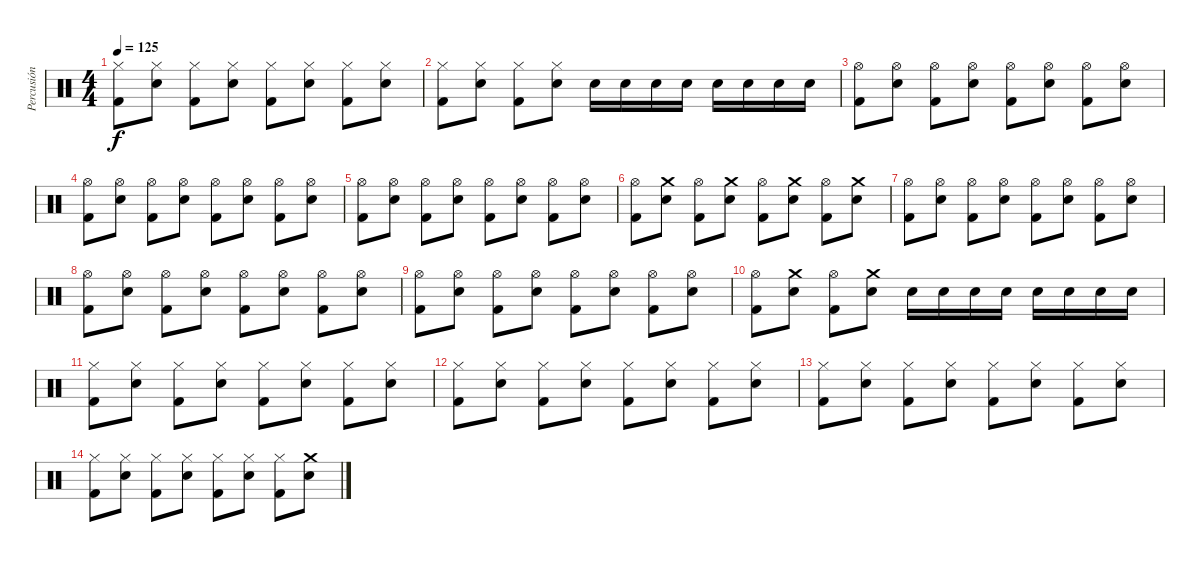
\track ("Percusión" "Percusión") {instrument percussion}
\staff {score}
\articulation defaults
\ts (4 4)
\tempo 125
\clef neutral
\ks c
("Hi-Hat (closed)" "Kick (hit) 2").8{dy f} ("Hi-Hat (closed)" "Snare (hit) 2").8 ("Hi-Hat (closed)" "Kick (hit) 2").8 ("Hi-Hat (closed)" "Snare (hit) 2").8 ("Hi-Hat (closed)" "Kick (hit) 2").8 ("Hi-Hat (closed)" "Snare (hit) 2").8 ("Hi-Hat (closed)" "Kick (hit) 2").8 ("Hi-Hat (closed)" "Snare (hit) 2").8 |
("Hi-Hat (closed)" "Kick (hit) 2").8 ("Hi-Hat (closed)" "Snare (hit) 2").8 ("Hi-Hat (closed)" "Kick (hit) 2").8 ("Hi-Hat (closed)" "Snare (hit) 2").8 "Snare (hit) 2".16 "Snare (hit) 2".16 "Snare (hit) 2".16 "Snare (hit) 2".16 "Snare (hit) 2".16 "Snare (hit) 2".16 "Snare (hit) 2".16 "Snare (hit) 2".16 |
("Hi-Hat (open)" "Kick (hit) 2").8 ("Hi-Hat (open)" "Snare (hit) 2").8 ("Hi-Hat (open)" "Kick (hit) 2").8 ("Hi-Hat (open)" "Snare (hit) 2").8 ("Hi-Hat (open)" "Kick (hit) 2").8 ("Hi-Hat (open)" "Snare (hit) 2").8 ("Hi-Hat (open)" "Kick (hit) 2").8 ("Hi-Hat (open)" "Snare (hit) 2").8 |
("Hi-Hat (open)" "Kick (hit) 2").8 ("Hi-Hat (open)" "Snare (hit) 2").8 ("Hi-Hat (open)" "Kick (hit) 2").8 ("Hi-Hat (open)" "Snare (hit) 2").8 ("Hi-Hat (open)" "Kick (hit) 2").8 ("Hi-Hat (open)" "Snare (hit) 2").8 ("Hi-Hat (open)" "Kick (hit) 2").8 ("Hi-Hat (open)" "Snare (hit) 2").8 |
("Hi-Hat (open)" "Kick (hit) 2").8 ("Hi-Hat (open)" "Snare (hit) 2").8 ("Hi-Hat (open)" "Kick (hit) 2").8 ("Hi-Hat (open)" "Snare (hit) 2").8 ("Hi-Hat (open)" "Kick (hit) 2").8 ("Hi-Hat (open)" "Snare (hit) 2").8 ("Hi-Hat (open)" "Kick (hit) 2").8 ("Hi-Hat (open)" "Snare (hit) 2").8 |
("Hi-Hat (open)" "Kick (hit) 2").8 ("Crash medium (hit)" "Snare (hit) 2").8 ("Hi-Hat (open)" "Kick (hit) 2").8 ("Crash medium (hit)" "Snare (hit) 2").8 ("Hi-Hat (open)" "Kick (hit) 2").8 ("Crash medium (hit)" "Snare (hit) 2").8 ("Hi-Hat (open)" "Kick (hit) 2").8 ("Crash medium (hit)" "Snare (hit) 2").8 |
("Hi-Hat (open)" "Kick (hit) 2").8 ("Hi-Hat (open)" "Snare (hit) 2").8 ("Hi-Hat (open)" "Kick (hit) 2").8 ("Hi-Hat (open)" "Snare (hit) 2").8 ("Hi-Hat (open)" "Kick (hit) 2").8 ("Hi-Hat (open)" "Snare (hit) 2").8 ("Hi-Hat (open)" "Kick (hit) 2").8 ("Hi-Hat (open)" "Snare (hit) 2").8 |
("Hi-Hat (open)" "Kick (hit) 2").8 ("Hi-Hat (open)" "Snare (hit) 2").8 ("Hi-Hat (open)" "Kick (hit) 2").8 ("Hi-Hat (open)" "Snare (hit) 2").8 ("Hi-Hat (open)" "Kick (hit) 2").8 ("Hi-Hat (open)" "Snare (hit) 2").8 ("Hi-Hat (open)" "Kick (hit) 2").8 ("Hi-Hat (open)" "Snare (hit) 2").8 |
("Hi-Hat (open)" "Kick (hit) 2").8 ("Hi-Hat (open)" "Snare (hit) 2").8 ("Hi-Hat (open)" "Kick (hit) 2").8 ("Hi-Hat (open)" "Snare (hit) 2").8 ("Hi-Hat (open)" "Kick (hit) 2").8 ("Hi-Hat (open)" "Snare (hit) 2").8 ("Hi-Hat (open)" "Kick (hit) 2").8 ("Hi-Hat (open)" "Snare (hit) 2").8 |
("Hi-Hat (open)" "Kick (hit) 2").8 ("Crash medium (hit)" "Snare (hit) 2").8 ("Hi-Hat (open)" "Kick (hit) 2").8 ("Crash medium (hit)" "Snare (hit) 2").8 "Snare (hit) 2".16 "Snare (hit) 2".16 "Snare (hit) 2".16 "Snare (hit) 2".16 "Snare (hit) 2".16 "Snare (hit) 2".16 "Snare (hit) 2".16 "Snare (hit) 2".16 |
("Hi-Hat (closed)" "Kick (hit) 2").8 ("Hi-Hat (closed)" "Snare (hit) 2").8 ("Hi-Hat (closed)" "Kick (hit) 2").8 ("Hi-Hat (closed)" "Snare (hit) 2").8 ("Hi-Hat (closed)" "Kick (hit) 2").8 ("Hi-Hat (closed)" "Snare (hit) 2").8 ("Hi-Hat (closed)" "Kick (hit) 2").8 ("Hi-Hat (closed)" "Snare (hit) 2").8 |
("Hi-Hat (closed)" "Kick (hit) 2").8 ("Hi-Hat (closed)" "Snare (hit) 2").8 ("Hi-Hat (closed)" "Kick (hit) 2").8 ("Hi-Hat (closed)" "Snare (hit) 2").8 ("Hi-Hat (closed)" "Kick (hit) 2").8 ("Hi-Hat (closed)" "Snare (hit) 2").8 ("Hi-Hat (closed)" "Kick (hit) 2").8 ("Hi-Hat (closed)" "Snare (hit) 2").8 |
("Hi-Hat (closed)" "Kick (hit) 2").8 ("Hi-Hat (closed)" "Snare (hit) 2").8 ("Hi-Hat (closed)" "Kick (hit) 2").8 ("Hi-Hat (closed)" "Snare (hit) 2").8 ("Hi-Hat (closed)" "Kick (hit) 2").8 ("Hi-Hat (closed)" "Snare (hit) 2").8 ("Hi-Hat (closed)" "Kick (hit) 2").8 ("Hi-Hat (closed)" "Snare (hit) 2").8 |
("Hi-Hat (closed)" "Kick (hit) 2").8 ("Hi-Hat (closed)" "Snare (hit) 2").8 ("Hi-Hat (closed)" "Kick (hit) 2").8 ("Hi-Hat (closed)" "Snare (hit) 2").8 ("Hi-Hat (closed)" "Kick (hit) 2").8 ("Hi-Hat (closed)" "Snare (hit) 2").8 ("Hi-Hat (closed)" "Kick (hit) 2").8 ("Crash medium (hit)" "Snare (hit) 2").8
